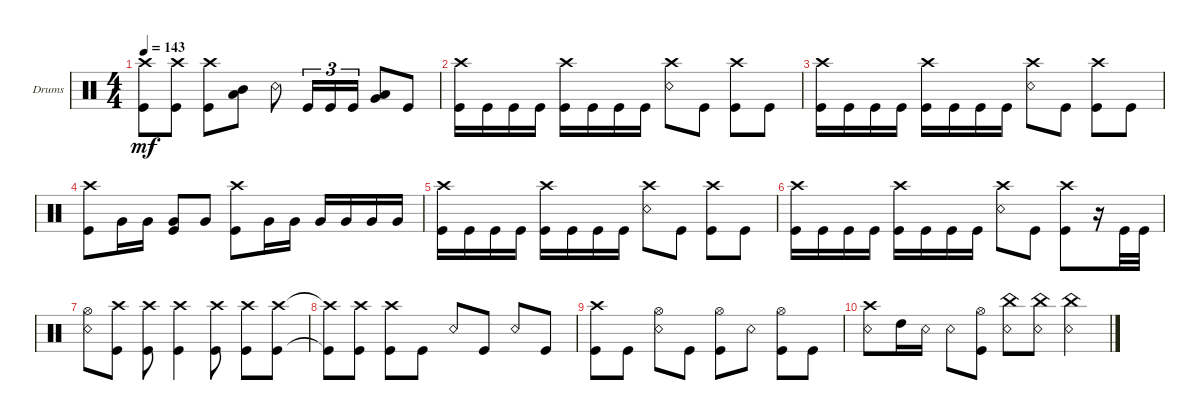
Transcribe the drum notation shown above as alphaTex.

\defaultSystemsLayout 4
\bracketExtendMode groupsimilarinstruments
\firstSystemTrackNameOrientation horizontal
\otherSystemsTrackNameOrientation horizontal
\track ("Drums" "Drums") {instrument percussion}
\staff {score}
\articulation defaults
\ts (4 4)
\tempo 143
\clef neutral
\ks c
("Crash high (hit)"{t} "Kick (hit)"{t}).8{dy mf} ("Crash high (hit)" "Kick (hit)").8 ("Crash high (hit)" "Kick (hit)").8 ("Mid Tom (hit)" "Low Tom (hit)").8 "Snare (rim shot)".8 "Kick (hit)".16{tu (3 2)} "Kick (hit)".16{tu (3 2)} "Kick (hit)".16{tu (3 2)} ("Low Tom (hit)" "Very Low Tom (hit)").8 "Kick (hit)".8 |
("Crash high (hit)" "Kick (hit)").16 "Kick (hit)".16 "Kick (hit)".16 "Kick (hit)".16 ("Kick (hit)" "Crash high (hit)").16 "Kick (hit)".16 "Kick (hit)".16 "Kick (hit)".16 ("Crash high (hit)" "Snare (rim shot)").8 "Kick (hit)".8 ("Kick (hit)" "Crash high (hit)").8 "Kick (hit)".8 |
("Crash high (hit)" "Kick (hit)").16 "Kick (hit)".16 "Kick (hit)".16 "Kick (hit)".16 ("Kick (hit)" "Crash high (hit)").16 "Kick (hit)".16 "Kick (hit)".16 "Kick (hit)".16 ("Crash high (hit)" "Snare (rim shot)").8 "Kick (hit)".8 ("Kick (hit)" "Crash high (hit)").8 "Kick (hit)".8 |
("Crash high (hit)" "Kick (hit)").8 "Very Low Tom (hit)".16 "Very Low Tom (hit)".16 ("Very Low Tom (hit)" "Kick (hit)").8 "Very Low Tom (hit)".8 ("Kick (hit)" "Crash high (hit)").8 "Very Low Tom (hit)".16 "Very Low Tom (hit)".16 "Very Low Tom (hit)".16 "Very Low Tom (hit)".16 "Very Low Tom (hit)".16 "Very Low Tom (hit)".16 |
("Crash high (hit)" "Kick (hit)").16 "Kick (hit)".16 "Kick (hit)".16 "Kick (hit)".16 ("Kick (hit)" "Crash high (hit)").16 "Kick (hit)".16 "Kick (hit)".16 "Kick (hit)".16 ("Crash high (hit)" "Snare (rim shot)").8 "Kick (hit)".8 ("Kick (hit)" "Crash high (hit)").8 "Kick (hit)".8 |
("Crash high (hit)" "Kick (hit)").16 "Kick (hit)".16 "Kick (hit)".16 "Kick (hit)".16 ("Kick (hit)" "Crash high (hit)").16 "Kick (hit)".16 "Kick (hit)".16 "Kick (hit)".16 ("Crash high (hit)" "Snare (rim shot)").8 "Kick (hit)".8 ("Kick (hit)" "Crash high (hit)").8 r.16 "Kick (hit)".32 "Kick (hit)".32 |
("Snare (rim shot)" "Hi-Hat (open)").8 ("Crash high (hit)" "Kick (hit)").8 ("Crash high (hit)" "Kick (hit)").8 ("Crash high (hit)" "Kick (hit)").4 ("Crash high (hit)" "Kick (hit)").8 ("Crash high (hit)" "Kick (hit)").8 ("Crash high (hit)" "Kick (hit)").8 |
("Crash high (hit)"{t} "Kick (hit)"{t}).8 ("Crash high (hit)" "Kick (hit)").8 ("Crash high (hit)" "Kick (hit)").8 "Kick (hit)".8 "Snare (rim shot)".8 "Kick (hit)".8 "Snare (rim shot)".8 "Kick (hit)".8 |
("Crash high (hit)" "Kick (hit)").8 "Kick (hit)".8 ("Snare (rim shot)" "Hi-Hat (open)").8 "Kick (hit)".8 ("Kick (hit)" "Hi-Hat (open)").8 "Snare (rim shot)".8 ("Kick (hit)" "Hi-Hat (open)").8 "Kick (hit)".8 |
("Crash high (hit)" "Snare (rim shot)").8 "High Tom (hit)".16 "Snare (rim shot)".16 "Snare (rim shot)".8 ("Hi-Hat (open)" "Kick (hit)").8 ("Snare (rim shot)" "China (hit)").8 ("Snare (rim shot)" "China (hit)").8 ("Snare (rim shot)" "China (hit)").4
